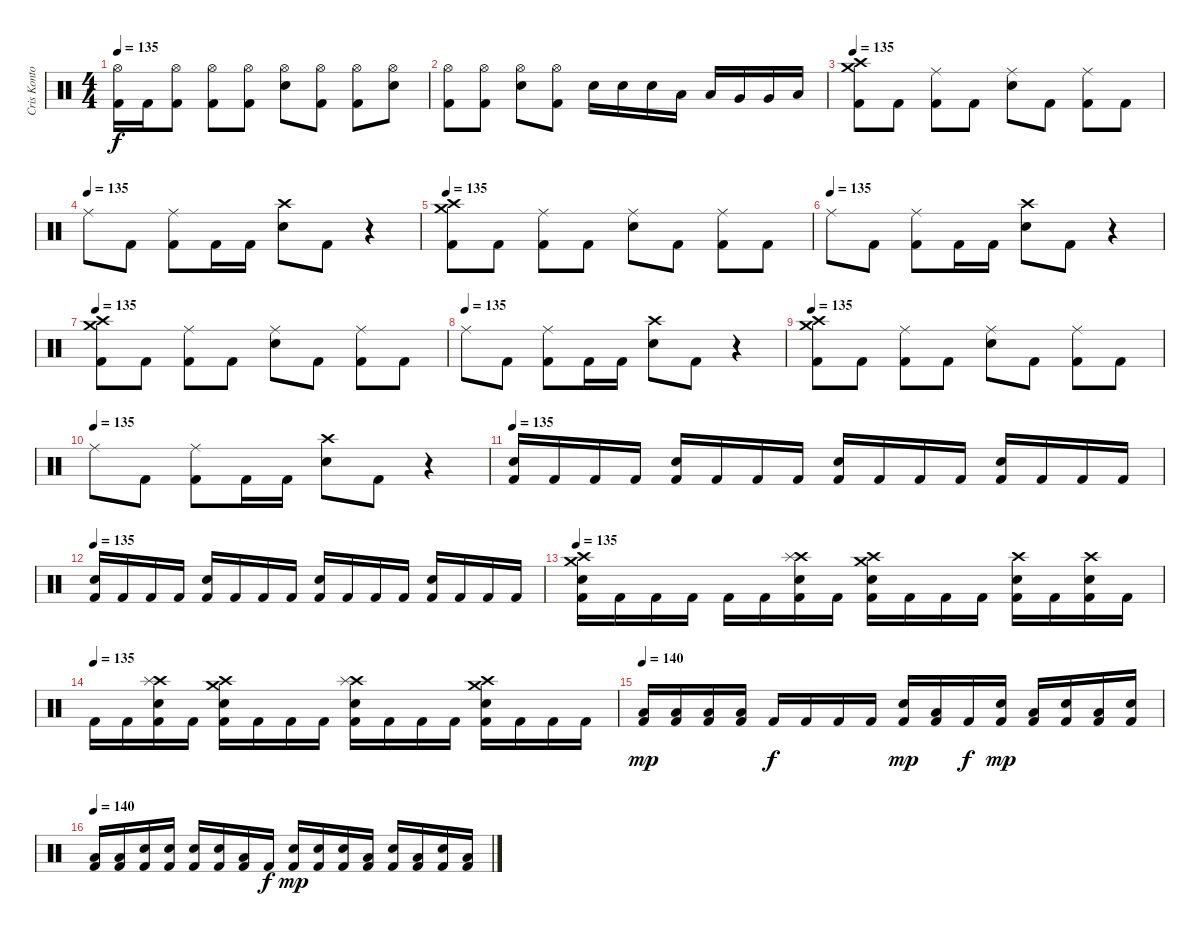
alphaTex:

\track ("Cris Kontos" "Cris Konto") {instrument percussion}
\staff {score}
\articulation defaults
\ts (4 4)
\tempo 128
\tempo 135
\clef neutral
\ks c
("Hi-Hat (open)" "Kick (hit) 2").16{dy f} "Kick (hit) 2".16 ("Hi-Hat (open)" "Kick (hit) 2").8 ("Hi-Hat (open)" "Kick (hit) 2").8 ("Hi-Hat (open)" "Kick (hit) 2").8 ("Hi-Hat (open)" "Electric Snare (hit)").8 ("Hi-Hat (open)" "Kick (hit) 2").8 ("Hi-Hat (open)" "Kick (hit) 2").8 ("Hi-Hat (open)" "Electric Snare (hit)").8 |
("Hi-Hat (open)" "Kick (hit) 2").8 ("Hi-Hat (open)" "Kick (hit) 2").8 ("Hi-Hat (open)" "Electric Snare (hit)").8 ("Hi-Hat (open)" "Kick (hit) 2").8 "Electric Snare (hit)".16 "Electric Snare (hit)".16 "Electric Snare (hit)".16 "Low Tom (hit)".16 "Low Tom (hit)".16 "Very Low Tom (hit)".16 "Very Low Tom (hit)".16 "Low Floor Tom (hit)".16 |
\tempo 135
("Crash high (hit)" "Crash medium (hit)" "Kick (hit) 2").8 "Kick (hit) 2".8 ("Ride (middle)" "Kick (hit) 2").8 "Kick (hit) 2".8 ("Ride (middle)" "Electric Snare (hit)").8 "Kick (hit) 2".8 ("Ride (middle)" "Kick (hit) 2").8 "Kick (hit) 2".8 |
\tempo (135)
"Ride (middle)".8 "Kick (hit) 2".8 ("Ride (middle)" "Kick (hit) 2").8 "Kick (hit) 2".16 "Kick (hit) 2".16 ("Crash high (hit)" "Electric Snare (hit)").8 "Kick (hit) 2".8 r.4 |
\tempo 135
("Crash high (hit)" "Crash medium (hit)" "Kick (hit) 2").8 "Kick (hit) 2".8 ("Ride (middle)" "Kick (hit) 2").8 "Kick (hit) 2".8 ("Ride (middle)" "Electric Snare (hit)").8 "Kick (hit) 2".8 ("Ride (middle)" "Kick (hit) 2").8 "Kick (hit) 2".8 |
\tempo (135)
"Ride (middle)".8 "Kick (hit) 2".8 ("Ride (middle)" "Kick (hit) 2").8 "Kick (hit) 2".16 "Kick (hit) 2".16 ("Crash high (hit)" "Electric Snare (hit)").8 "Kick (hit) 2".8 r.4 |
\tempo 135
("Crash high (hit)" "Crash medium (hit)" "Kick (hit) 2").8 "Kick (hit) 2".8 ("Ride (middle)" "Kick (hit) 2").8 "Kick (hit) 2".8 ("Ride (middle)" "Electric Snare (hit)").8 "Kick (hit) 2".8 ("Ride (middle)" "Kick (hit) 2").8 "Kick (hit) 2".8 |
\tempo (135)
"Ride (middle)".8 "Kick (hit) 2".8 ("Ride (middle)" "Kick (hit) 2").8 "Kick (hit) 2".16 "Kick (hit) 2".16 ("Crash high (hit)" "Electric Snare (hit)").8 "Kick (hit) 2".8 r.4 |
\tempo 128
\tempo 135
("Crash high (hit)" "Crash medium (hit)" "Kick (hit) 2").8 "Kick (hit) 2".8 ("Ride (middle)" "Kick (hit) 2").8 "Kick (hit) 2".8 ("Ride (middle)" "Electric Snare (hit)").8 "Kick (hit) 2".8 ("Ride (middle)" "Kick (hit) 2").8 "Kick (hit) 2".8 |
\tempo (135)
"Ride (middle)".8 "Kick (hit) 2".8 ("Ride (middle)" "Kick (hit) 2").8 "Kick (hit) 2".16 "Kick (hit) 2".16 ("Crash high (hit)" "Electric Snare (hit)").8 "Kick (hit) 2".8 r.4 |
\tempo 135
("Electric Snare (hit)" "Kick (hit) 2").16 "Kick (hit) 2".16 "Kick (hit) 2".16 "Kick (hit) 2".16 ("Electric Snare (hit)" "Kick (hit) 2").16 "Kick (hit) 2".16 "Kick (hit) 2".16 "Kick (hit) 2".16 ("Electric Snare (hit)" "Kick (hit) 2").16 "Kick (hit) 2".16 "Kick (hit) 2".16 "Kick (hit) 2".16 ("Electric Snare (hit)" "Kick (hit) 2").16 "Kick (hit) 2".16 "Kick (hit) 2".16 "Kick (hit) 2".16 |
\tempo 135
("Electric Snare (hit)" "Kick (hit) 2").16 "Kick (hit) 2".16 "Kick (hit) 2".16 "Kick (hit) 2".16 ("Electric Snare (hit)" "Kick (hit) 2").16 "Kick (hit) 2".16 "Kick (hit) 2".16 "Kick (hit) 2".16 ("Electric Snare (hit)" "Kick (hit) 2").16 "Kick (hit) 2".16 "Kick (hit) 2".16 "Kick (hit) 2".16 ("Electric Snare (hit)" "Kick (hit) 2").16 "Kick (hit) 2".16 "Kick (hit) 2".16 "Kick (hit) 2".16 |
\tempo 135
("Crash high (hit)" "Crash medium (hit)" "Electric Snare (hit)" "Kick (hit) 2").16 "Kick (hit) 2".16 "Kick (hit) 2".16 "Kick (hit) 2".16 "Kick (hit) 2".16 "Kick (hit) 2".16 ("Crash high (hit)" "Splash (hit)" "Electric Snare (hit)" "Kick (hit) 2").16 "Kick (hit) 2".16 ("Crash high (hit)" "Crash medium (hit)" "Electric Snare (hit)" "Kick (hit) 2").16 "Kick (hit) 2".16 "Kick (hit) 2".16 "Kick (hit) 2".16 ("Crash high (hit)" "Electric Snare (hit)" "Kick (hit) 2").16 "Kick (hit) 2".16 ("Crash high (hit)" "Electric Snare (hit)" "Kick (hit) 2").16 "Kick (hit) 2".16 |
\tempo (135)
"Kick (hit) 2".16 "Kick (hit) 2".16 ("Crash high (hit)" "Splash (hit)" "Electric Snare (hit)" "Kick (hit) 2").16 "Kick (hit) 2".16 ("Crash high (hit)" "Crash medium (hit)" "Electric Snare (hit)" "Kick (hit) 2").16 "Kick (hit) 2".16 "Kick (hit) 2".16 "Kick (hit) 2".16 ("Crash high (hit)" "Splash (hit)" "Electric Snare (hit)" "Kick (hit) 2").16 "Kick (hit) 2".16 "Kick (hit) 2".16 "Kick (hit) 2".16 ("Crash high (hit)" "Crash medium (hit)" "Electric Snare (hit)" "Kick (hit) 2").16 "Kick (hit) 2".16 "Kick (hit) 2".16 "Kick (hit) 2".16 |
\tempo 140
("Low Floor Tom (hit)" "Kick (hit) 2").16{dy mp} ("Low Floor Tom (hit)" "Kick (hit) 2").16 ("Low Floor Tom (hit)" "Kick (hit) 2").16 ("Low Floor Tom (hit)" "Kick (hit) 2").16 "Kick (hit) 2".16{dy f} "Kick (hit) 2".16 "Kick (hit) 2".16 "Kick (hit) 2".16 ("Electric Snare (hit)" "Kick (hit) 2").16{dy mp} ("Low Floor Tom (hit)" "Kick (hit) 2").16 "Kick (hit) 2".16{dy f} ("Electric Snare (hit)" "Kick (hit) 2").16{dy mp} ("Low Floor Tom (hit)" "Kick (hit) 2").16 ("Electric Snare (hit)" "Kick (hit) 2").16 ("Low Floor Tom (hit)" "Kick (hit) 2").16 ("Electric Snare (hit)" "Kick (hit) 2").16 |
\tempo 140
("Low Floor Tom (hit)" "Kick (hit) 2").16 ("Low Floor Tom (hit)" "Kick (hit) 2").16 ("Electric Snare (hit)" "Kick (hit) 2").16 ("Electric Snare (hit)" "Kick (hit) 2").16 ("Electric Snare (hit)" "Kick (hit) 2").16 ("Electric Snare (hit)" "Kick (hit) 2").16 ("Low Floor Tom (hit)" "Kick (hit) 2").16 "Kick (hit) 2".16{dy f} ("Electric Snare (hit)" "Kick (hit) 2").16{dy mp} ("Electric Snare (hit)" "Kick (hit) 2").16 ("Electric Snare (hit)" "Kick (hit) 2").16 ("Low Floor Tom (hit)" "Kick (hit) 2").16 ("Electric Snare (hit)" "Kick (hit) 2").16 ("Low Floor Tom (hit)" "Kick (hit) 2").16 ("Electric Snare (hit)" "Kick (hit) 2").16 ("Low Floor Tom (hit)" "Kick (hit) 2").16
